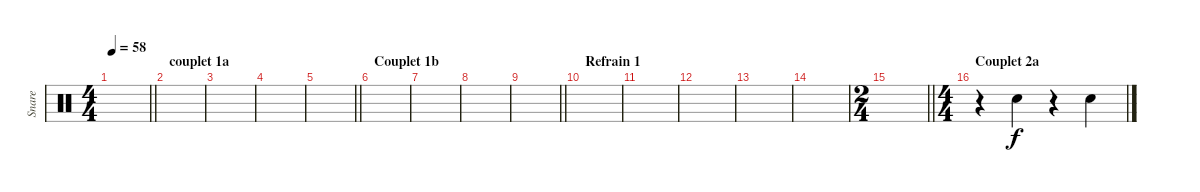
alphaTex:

\track ("Snare" "Snare") {instrument percussion}
\staff {score}
\articulation defaults
\ts (4 4)
\tempo 58
\clef neutral
\barLineRight lightlight
\ks c
|
\section ("" "couplet 1a")
|
|
|
\barLineRight lightlight
|
\section ("" "Couplet 1b")
|
|
|
\barLineRight lightlight
|
\section ("" "Refrain 1")
|
|
|
|
|
\ts (2 4)
\barLineRight lightlight
|
\ts (4 4)
\section ("" "Couplet 2a")
r.4 "Electric Snare (hit)".4 r.4 "Electric Snare (hit)".4
